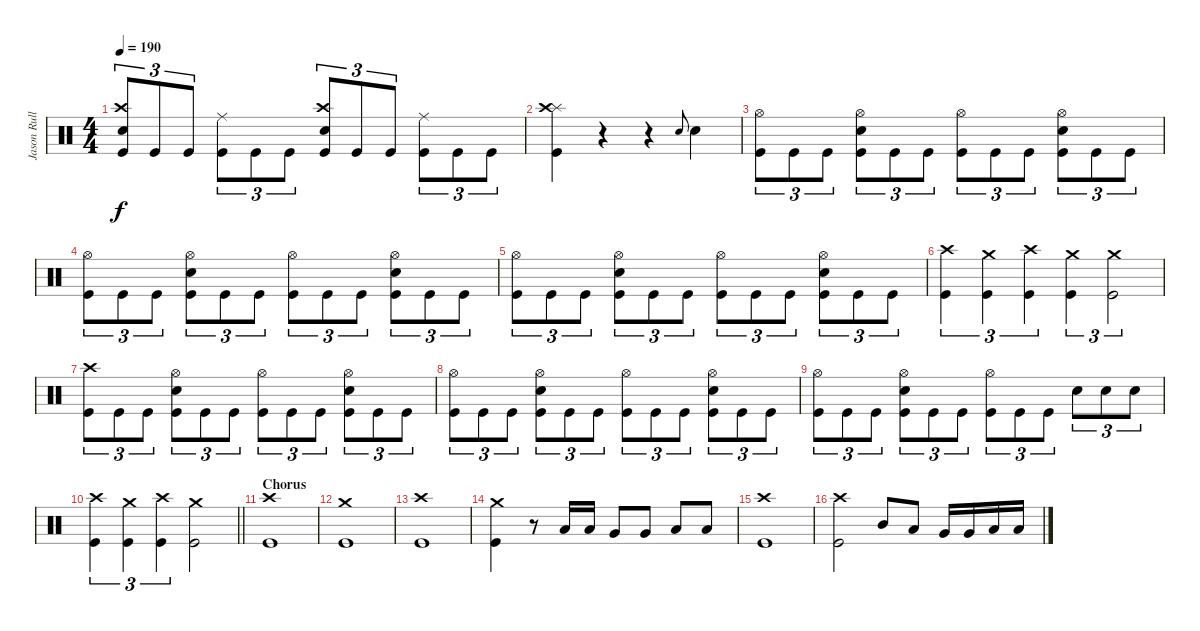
\track ("Jason Rullo - Drums and Percussion" "Jason Rull") {instrument percussion}
\staff {score}
\articulation defaults
\ts (4 4)
\tempo 190
\clef neutral
\ks c
("Kick (hit)" "Crash high (hit)" "Snare (hit) 2").8{tu (3 2) dy f} "Kick (hit)".8{tu (3 2)} "Kick (hit)".8{tu (3 2)} ("Kick (hit)" "Ride (middle)").8{tu (3 2)} "Kick (hit)".8{tu (3 2)} "Kick (hit)".8{tu (3 2)} ("Snare (hit) 2" "Kick (hit)" "Crash high (hit)").8{tu (3 2)} "Kick (hit)".8{tu (3 2)} "Kick (hit)".8{tu (3 2)} ("Kick (hit)" "Ride (middle)").8{tu (3 2)} "Kick (hit)".8{tu (3 2)} "Kick (hit)".8{tu (3 2)} |
("Kick (hit)" "Splash (hit)" "Crash high (hit)").4 r.4 r.4 "Snare (hit) 2".8{gr onbeat} "Snare (hit) 2".4 |
("Kick (hit)" "Hi-Hat (open)").8{tu (3 2)} "Kick (hit)".8{tu (3 2)} "Kick (hit)".8{tu (3 2)} ("Kick (hit)" "Snare (hit) 2" "Hi-Hat (open)").8{tu (3 2)} "Kick (hit)".8{tu (3 2)} "Kick (hit)".8{tu (3 2)} ("Hi-Hat (open)" "Kick (hit)").8{tu (3 2)} "Kick (hit)".8{tu (3 2)} "Kick (hit)".8{tu (3 2)} ("Kick (hit)" "Snare (hit) 2" "Hi-Hat (open)").8{tu (3 2)} "Kick (hit)".8{tu (3 2)} "Kick (hit)".8{tu (3 2)} |
("Kick (hit)" "Hi-Hat (open)").8{tu (3 2)} "Kick (hit)".8{tu (3 2)} "Kick (hit)".8{tu (3 2)} ("Kick (hit)" "Snare (hit) 2" "Hi-Hat (open)").8{tu (3 2)} "Kick (hit)".8{tu (3 2)} "Kick (hit)".8{tu (3 2)} ("Hi-Hat (open)" "Kick (hit)").8{tu (3 2)} "Kick (hit)".8{tu (3 2)} "Kick (hit)".8{tu (3 2)} ("Kick (hit)" "Snare (hit) 2" "Hi-Hat (open)").8{tu (3 2)} "Kick (hit)".8{tu (3 2)} "Kick (hit)".8{tu (3 2)} |
("Kick (hit)" "Hi-Hat (open)").8{tu (3 2)} "Kick (hit)".8{tu (3 2)} "Kick (hit)".8{tu (3 2)} ("Kick (hit)" "Snare (hit) 2" "Hi-Hat (open)").8{tu (3 2)} "Kick (hit)".8{tu (3 2)} "Kick (hit)".8{tu (3 2)} ("Hi-Hat (open)" "Kick (hit)").8{tu (3 2)} "Kick (hit)".8{tu (3 2)} "Kick (hit)".8{tu (3 2)} ("Kick (hit)" "Snare (hit) 2" "Hi-Hat (open)").8{tu (3 2)} "Kick (hit)".8{tu (3 2)} "Kick (hit)".8{tu (3 2)} |
("Kick (hit)" "Crash high (hit)").4{tu (3 2)} ("Kick (hit)" "Crash medium (hit)").4{tu (3 2)} ("Kick (hit)" "Crash high (hit)").4{tu (3 2)} ("Kick (hit)" "Crash medium (hit)").4{tu (3 2)} ("Kick (hit)" "Crash medium (hit)").2{tu (3 2)} |
("Kick (hit)" "Crash high (hit)").8{tu (3 2)} "Kick (hit)".8{tu (3 2)} "Kick (hit)".8{tu (3 2)} ("Kick (hit)" "Snare (hit) 2" "Hi-Hat (open)").8{tu (3 2)} "Kick (hit)".8{tu (3 2)} "Kick (hit)".8{tu (3 2)} ("Hi-Hat (open)" "Kick (hit)").8{tu (3 2)} "Kick (hit)".8{tu (3 2)} "Kick (hit)".8{tu (3 2)} ("Kick (hit)" "Snare (hit) 2" "Hi-Hat (open)").8{tu (3 2)} "Kick (hit)".8{tu (3 2)} "Kick (hit)".8{tu (3 2)} |
("Kick (hit)" "Hi-Hat (open)").8{tu (3 2)} "Kick (hit)".8{tu (3 2)} "Kick (hit)".8{tu (3 2)} ("Kick (hit)" "Snare (hit) 2" "Hi-Hat (open)").8{tu (3 2)} "Kick (hit)".8{tu (3 2)} "Kick (hit)".8{tu (3 2)} ("Hi-Hat (open)" "Kick (hit)").8{tu (3 2)} "Kick (hit)".8{tu (3 2)} "Kick (hit)".8{tu (3 2)} ("Kick (hit)" "Snare (hit) 2" "Hi-Hat (open)").8{tu (3 2)} "Kick (hit)".8{tu (3 2)} "Kick (hit)".8{tu (3 2)} |
("Kick (hit)" "Hi-Hat (open)").8{tu (3 2)} "Kick (hit)".8{tu (3 2)} "Kick (hit)".8{tu (3 2)} ("Kick (hit)" "Snare (hit) 2" "Hi-Hat (open)").8{tu (3 2)} "Kick (hit)".8{tu (3 2)} "Kick (hit)".8{tu (3 2)} ("Hi-Hat (open)" "Kick (hit)").8{tu (3 2)} "Kick (hit)".8{tu (3 2)} "Kick (hit)".8{tu (3 2)} "Snare (hit) 2".8{tu (3 2)} "Snare (hit) 2".8{tu (3 2)} "Snare (hit) 2".8{tu (3 2)} |
\barLineRight lightlight
("Kick (hit)" "Crash high (hit)").4{tu (3 2)} ("Kick (hit)" "Crash medium (hit)").4{tu (3 2)} ("Kick (hit)" "Crash high (hit)").4{tu (3 2)} ("Kick (hit)" "Crash medium (hit)").2 |
\section ("" "Chorus")
("Kick (hit)" "Crash high (hit)").1 |
("Kick (hit)" "Crash medium (hit)").1 |
("Kick (hit)" "Crash high (hit)").1 |
("Crash medium (hit)" "Kick (hit)").4 r.8 "Low Tom (hit)".16 "Low Tom (hit)".16 "Very Low Tom (hit)".8 "Very Low Tom (hit)".8 "Low Floor Tom (hit)".8 "Low Floor Tom (hit)".8 |
("Kick (hit)" "Crash high (hit)").1 |
("Kick (hit)" "Crash high (hit)").2 "Mid Tom (hit)".8 "Low Tom (hit)".8 "Very Low Tom (hit)".16 "Very Low Tom (hit)".16 "Low Floor Tom (hit)".16 "Low Floor Tom (hit)".16
